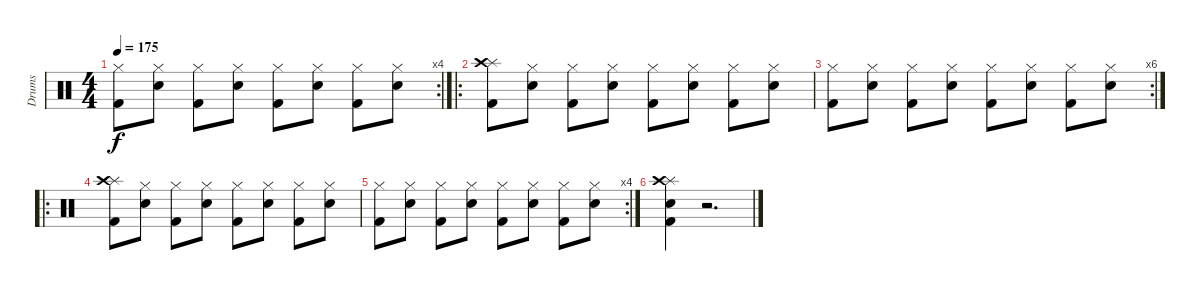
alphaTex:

\track ("Drums" "Drums") {instrument percussion}
\staff {score}
\articulation defaults
\rc 4
\ts (4 4)
\tempo 175
\clef neutral
\ks c
("Hi-Hat (closed)" "Kick (hit) 2").8{dy f} ("Hi-Hat (closed)" "Snare (hit) 2").8 ("Hi-Hat (closed)" "Kick (hit) 2").8 ("Hi-Hat (closed)" "Snare (hit) 2").8 ("Hi-Hat (closed)" "Kick (hit) 2").8 ("Hi-Hat (closed)" "Snare (hit) 2").8 ("Hi-Hat (closed)" "Kick (hit) 2").8 ("Hi-Hat (closed)" "Snare (hit) 2").8 |
\ro
("Splash (hit)" "Crash high (hit)" "Kick (hit) 2").8 ("Hi-Hat (closed)" "Snare (hit) 2").8 ("Hi-Hat (closed)" "Kick (hit) 2").8 ("Hi-Hat (closed)" "Snare (hit) 2").8 ("Hi-Hat (closed)" "Kick (hit) 2").8 ("Hi-Hat (closed)" "Snare (hit) 2").8 ("Hi-Hat (closed)" "Kick (hit) 2").8 ("Hi-Hat (closed)" "Snare (hit) 2").8 |
\rc 6
("Hi-Hat (closed)" "Kick (hit) 2").8 ("Hi-Hat (closed)" "Snare (hit) 2").8 ("Hi-Hat (closed)" "Kick (hit) 2").8 ("Hi-Hat (closed)" "Snare (hit) 2").8 ("Hi-Hat (closed)" "Kick (hit) 2").8 ("Hi-Hat (closed)" "Snare (hit) 2").8 ("Hi-Hat (closed)" "Kick (hit) 2").8 ("Hi-Hat (closed)" "Snare (hit) 2").8 |
\ro
("Splash (hit)" "Crash high (hit)" "Kick (hit) 2").8 ("Hi-Hat (closed)" "Snare (hit) 2").8 ("Hi-Hat (closed)" "Kick (hit) 2").8 ("Hi-Hat (closed)" "Snare (hit) 2").8 ("Hi-Hat (closed)" "Kick (hit) 2").8 ("Hi-Hat (closed)" "Snare (hit) 2").8 ("Hi-Hat (closed)" "Kick (hit) 2").8 ("Hi-Hat (closed)" "Snare (hit) 2").8 |
\rc 4
("Hi-Hat (closed)" "Kick (hit) 2").8 ("Hi-Hat (closed)" "Snare (hit) 2").8 ("Hi-Hat (closed)" "Kick (hit) 2").8 ("Hi-Hat (closed)" "Snare (hit) 2").8 ("Hi-Hat (closed)" "Kick (hit) 2").8 ("Hi-Hat (closed)" "Snare (hit) 2").8 ("Hi-Hat (closed)" "Kick (hit) 2").8 ("Hi-Hat (closed)" "Snare (hit) 2").8 |
("Splash (hit)" "Crash high (hit)" "Snare (hit) 2" "Kick (hit) 2").4 r.2{d}
